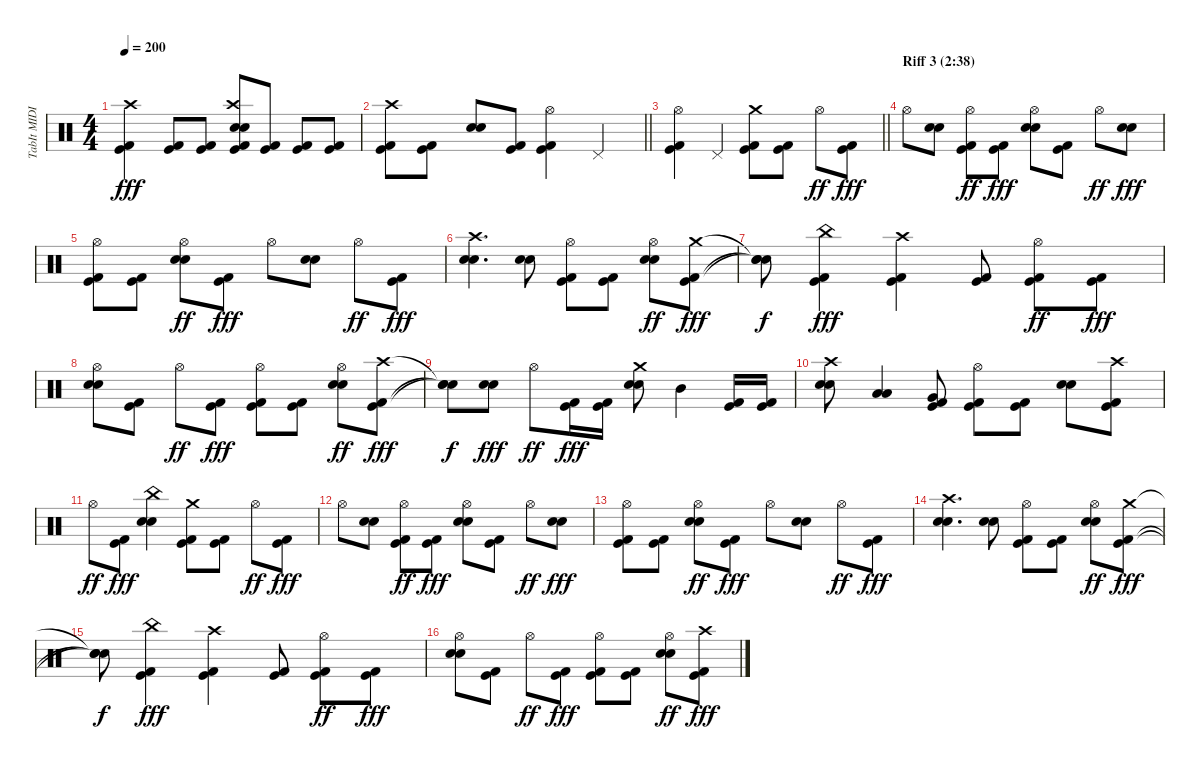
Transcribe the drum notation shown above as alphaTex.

\track ("TabIt MIDI - Track 4" "TabIt MIDI") {instrument percussion}
\staff {score}
\articulation defaults
\ts (4 4)
\tempo 200
\clef neutral
\ks c
("Kick (hit)" "Kick (hit) 2" "Crash high (hit)").4{dy fff} ("Kick (hit)" "Kick (hit) 2").8 ("Kick (hit)" "Kick (hit) 2").8 ("Kick (hit)" "Kick (hit) 2" "Electric Snare (hit)" "Electric Snare (hit)" "Crash high (hit)").8 ("Kick (hit)" "Kick (hit) 2").8 ("Kick (hit)" "Kick (hit) 2").8 ("Kick (hit)" "Kick (hit) 2").8 |
\barLineRight lightlight
("Kick (hit)" "Kick (hit) 2" "Crash high (hit)").8 ("Kick (hit)" "Kick (hit) 2").8 ("Electric Snare (hit)" "Electric Snare (hit)").8 ("Kick (hit)" "Kick (hit) 2").8 ("Kick (hit)" "Kick (hit) 2" "Hi-Hat (open)").4 "Pedal Hi-Hat (hit)".4 |
\barLineRight lightlight
("Kick (hit)" "Kick (hit) 2" "Hi-Hat (open)").4 "Pedal Hi-Hat (hit)".4 ("Kick (hit)" "Kick (hit) 2" "Crash medium (hit)").8 ("Kick (hit)" "Kick (hit) 2").8 "Hi-Hat (open)".8{dy ff} ("Kick (hit)" "Kick (hit) 2").8{dy fff} |
\section ("" "Riff 3 (2:38)")
"Hi-Hat (open)".8 ("Electric Snare (hit)" "Electric Snare (hit)").8 ("Kick (hit)" "Kick (hit) 2" "Hi-Hat (open)").8{dy ff} ("Kick (hit)" "Kick (hit) 2").8{dy fff} ("Electric Snare (hit)" "Electric Snare (hit)" "Hi-Hat (open)").8 ("Kick (hit)" "Kick (hit) 2").8 "Hi-Hat (open)".8{dy ff} ("Electric Snare (hit)" "Electric Snare (hit)").8{dy fff} |
("Kick (hit)" "Kick (hit) 2" "Hi-Hat (open)").8 ("Kick (hit)" "Kick (hit) 2").8 ("Electric Snare (hit)" "Electric Snare (hit)" "Hi-Hat (open)").8{dy ff} ("Kick (hit)" "Kick (hit) 2").8{dy fff} "Hi-Hat (open)".8 ("Electric Snare (hit)" "Electric Snare (hit)").8 "Hi-Hat (open)".8{dy ff} ("Kick (hit)" "Kick (hit) 2").8{dy fff} |
("Electric Snare (hit)" "Electric Snare (hit)" "Crash high (hit)").4{d} ("Electric Snare (hit)" "Electric Snare (hit)").8 ("Kick (hit)" "Kick (hit) 2" "Hi-Hat (open)").8 ("Kick (hit)" "Kick (hit) 2").8 ("Electric Snare (hit)" "Electric Snare (hit)" "Hi-Hat (open)").8{dy ff} ("Kick (hit)" "Kick (hit) 2" "Crash medium (hit)").8{dy fff} |
("Snare (hit)"{t} "Snare (hit)"{t} "Snare (hit)"{t}).8{dy f} ("Kick (hit)" "Kick (hit) 2" "China (hit)").4{dy fff} ("Kick (hit)" "Kick (hit) 2" "Crash high (hit)").4 ("Kick (hit)" "Kick (hit) 2").8 ("Kick (hit)" "Kick (hit) 2" "Hi-Hat (open)").8{dy ff} ("Kick (hit)" "Kick (hit) 2").8{dy fff} |
("Electric Snare (hit)" "Electric Snare (hit)" "Hi-Hat (open)").8 ("Kick (hit)" "Kick (hit) 2").8 "Hi-Hat (open)".8{dy ff} ("Kick (hit)" "Kick (hit) 2").8{dy fff} ("Kick (hit)" "Kick (hit) 2" "Hi-Hat (open)").8 ("Kick (hit)" "Kick (hit) 2").8 ("Electric Snare (hit)" "Electric Snare (hit)" "Hi-Hat (open)").8{dy ff} ("Kick (hit)" "Kick (hit) 2" "Crash high (hit)").8{dy fff} |
("Snare (hit)"{t} "Snare (hit)"{t} "Snare (hit)"{t}).8{dy f} ("Electric Snare (hit)" "Electric Snare (hit)").8{dy fff} "Hi-Hat (open)".8{dy ff} ("Kick (hit)" "Kick (hit) 2").16{dy fff} ("Kick (hit)" "Kick (hit) 2").16 ("Electric Snare (hit)" "Electric Snare (hit)" "Crash medium (hit)").8 "Mid Tom (hit)".4 ("Kick (hit)" "Kick (hit) 2").16 ("Kick (hit)" "Kick (hit) 2").16 |
("Electric Snare (hit)" "Electric Snare (hit)" "Crash high (hit)").8 ("Low Tom (hit)" "Low Tom (hit)").4 ("Kick (hit)" "Kick (hit) 2" "Very Low Tom (hit)").8 ("Kick (hit)" "Kick (hit) 2" "Hi-Hat (open)").8 ("Kick (hit)" "Kick (hit) 2").8 ("Electric Snare (hit)" "Electric Snare (hit)").8 ("Kick (hit)" "Kick (hit) 2" "Crash high (hit)").8 |
"Hi-Hat (open)".8{dy ff} ("Kick (hit)" "Kick (hit) 2").8{dy fff} ("Electric Snare (hit)" "Electric Snare (hit)" "China (hit)").4 ("Kick (hit)" "Kick (hit) 2" "Crash medium (hit)").8 ("Kick (hit)" "Kick (hit) 2").8 "Hi-Hat (open)".8{dy ff} ("Kick (hit)" "Kick (hit) 2").8{dy fff} |
"Hi-Hat (open)".8 ("Electric Snare (hit)" "Electric Snare (hit)").8 ("Kick (hit)" "Kick (hit) 2" "Hi-Hat (open)").8{dy ff} ("Kick (hit)" "Kick (hit) 2").8{dy fff} ("Electric Snare (hit)" "Electric Snare (hit)" "Hi-Hat (open)").8 ("Kick (hit)" "Kick (hit) 2").8 "Hi-Hat (open)".8{dy ff} ("Electric Snare (hit)" "Electric Snare (hit)").8{dy fff} |
("Kick (hit)" "Kick (hit) 2" "Hi-Hat (open)").8 ("Kick (hit)" "Kick (hit) 2").8 ("Electric Snare (hit)" "Electric Snare (hit)" "Hi-Hat (open)").8{dy ff} ("Kick (hit)" "Kick (hit) 2").8{dy fff} "Hi-Hat (open)".8 ("Electric Snare (hit)" "Electric Snare (hit)").8 "Hi-Hat (open)".8{dy ff} ("Kick (hit)" "Kick (hit) 2").8{dy fff} |
("Electric Snare (hit)" "Electric Snare (hit)" "Crash high (hit)").4{d} ("Electric Snare (hit)" "Electric Snare (hit)").8 ("Kick (hit)" "Kick (hit) 2" "Hi-Hat (open)").8 ("Kick (hit)" "Kick (hit) 2").8 ("Electric Snare (hit)" "Electric Snare (hit)" "Hi-Hat (open)").8{dy ff} ("Kick (hit)" "Kick (hit) 2" "Crash medium (hit)").8{dy fff} |
("Snare (hit)"{t} "Snare (hit)"{t} "Snare (hit)"{t}).8{dy f} ("Kick (hit)" "Kick (hit) 2" "China (hit)").4{dy fff} ("Kick (hit)" "Kick (hit) 2" "Crash high (hit)").4 ("Kick (hit)" "Kick (hit) 2").8 ("Kick (hit)" "Kick (hit) 2" "Hi-Hat (open)").8{dy ff} ("Kick (hit)" "Kick (hit) 2").8{dy fff} |
("Electric Snare (hit)" "Electric Snare (hit)" "Hi-Hat (open)").8 ("Kick (hit)" "Kick (hit) 2").8 "Hi-Hat (open)".8{dy ff} ("Kick (hit)" "Kick (hit) 2").8{dy fff} ("Kick (hit)" "Kick (hit) 2" "Hi-Hat (open)").8 ("Kick (hit)" "Kick (hit) 2").8 ("Electric Snare (hit)" "Electric Snare (hit)" "Hi-Hat (open)").8{dy ff} ("Kick (hit)" "Kick (hit) 2" "Crash high (hit)").8{dy fff}
